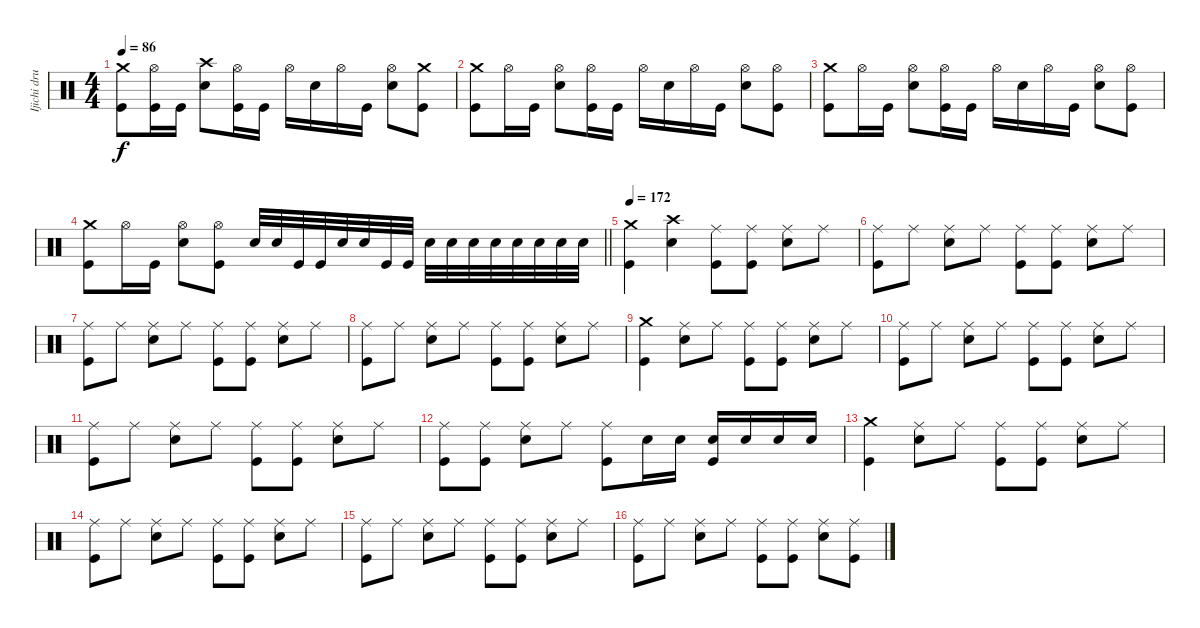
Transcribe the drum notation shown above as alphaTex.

\track ("Ijichi drums" "Ijichi dru") {instrument percussion}
\staff {score}
\articulation defaults
\ts (4 4)
\tempo 86
\clef neutral
\ks c
("Crash medium (hit)" "Kick (hit)").8{dy f} ("Hi-Hat (open)" "Kick (hit)").16 "Kick (hit)".16 ("Crash high (hit)" "Electric Snare (hit)").8 ("Hi-Hat (open)" "Kick (hit)").16 "Kick (hit)".16 "Hi-Hat (open)".16 "Electric Snare (hit)".16 "Hi-Hat (open)".16 "Kick (hit)".16 ("Hi-Hat (open)" "Electric Snare (hit)").8 ("Crash medium (hit)" "Kick (hit)").8 |
("Crash medium (hit)" "Kick (hit)").8 "Hi-Hat (open)".16 "Kick (hit)".16 ("Hi-Hat (open)" "Electric Snare (hit)").8 ("Hi-Hat (open)" "Kick (hit)").16 "Kick (hit)".16 "Hi-Hat (open)".16 "Electric Snare (hit)".16 "Hi-Hat (open)".16 "Kick (hit)".16 ("Hi-Hat (open)" "Electric Snare (hit)").8 ("Hi-Hat (open)" "Kick (hit)").8 |
("Crash medium (hit)" "Kick (hit)").8 "Hi-Hat (open)".16 "Kick (hit)".16 ("Hi-Hat (open)" "Electric Snare (hit)").8 ("Hi-Hat (open)" "Kick (hit)").16 "Kick (hit)".16 "Hi-Hat (open)".16 "Electric Snare (hit)".16 "Hi-Hat (open)".16 "Kick (hit)".16 ("Hi-Hat (open)" "Electric Snare (hit)").8 ("Hi-Hat (open)" "Kick (hit)").8 |
\barLineRight lightlight
("Crash medium (hit)" "Kick (hit)").8 "Hi-Hat (open)".16 "Kick (hit)".16 ("Hi-Hat (open)" "Electric Snare (hit)").8 ("Hi-Hat (open)" "Kick (hit)").8 "Electric Snare (hit)".32 "Electric Snare (hit)".32 "Kick (hit)".32 "Kick (hit)".32 "Electric Snare (hit)".32 "Electric Snare (hit)".32 "Kick (hit)".32 "Kick (hit)".32 "Electric Snare (hit)".32 "Electric Snare (hit)".32 "Electric Snare (hit)".32 "Electric Snare (hit)".32 "Electric Snare (hit)".32 "Electric Snare (hit)".32 "Electric Snare (hit)".32 "Electric Snare (hit)".32 |
\tempo 172
("Crash medium (hit)" "Kick (hit)").4 ("Crash high (hit)" "Electric Snare (hit)").4 ("Ride (middle)" "Kick (hit)").8 ("Ride (middle)" "Kick (hit)").8 ("Ride (middle)" "Electric Snare (hit)").8 "Ride (middle)".8 |
("Ride (middle)" "Kick (hit)").8 "Ride (middle)".8 ("Ride (middle)" "Electric Snare (hit)").8 "Ride (middle)".8 ("Ride (middle)" "Kick (hit)").8 ("Ride (middle)" "Kick (hit)").8 ("Ride (middle)" "Electric Snare (hit)").8 "Ride (middle)".8 |
("Ride (middle)" "Kick (hit)").8 "Ride (middle)".8 ("Ride (middle)" "Electric Snare (hit)").8 "Ride (middle)".8 ("Ride (middle)" "Kick (hit)").8 ("Ride (middle)" "Kick (hit)").8 ("Ride (middle)" "Electric Snare (hit)").8 "Ride (middle)".8 |
("Ride (middle)" "Kick (hit)").8 "Ride (middle)".8 ("Ride (middle)" "Electric Snare (hit)").8 "Ride (middle)".8 ("Ride (middle)" "Kick (hit)").8 ("Ride (middle)" "Kick (hit)").8 ("Ride (middle)" "Electric Snare (hit)").8 "Ride (middle)".8 |
("Crash medium (hit)" "Kick (hit)").4 ("Ride (middle)" "Electric Snare (hit)").8 "Ride (middle)".8 ("Ride (middle)" "Kick (hit)").8 ("Ride (middle)" "Kick (hit)").8 ("Ride (middle)" "Electric Snare (hit)").8 "Ride (middle)".8 |
("Ride (middle)" "Kick (hit)").8 "Ride (middle)".8 ("Ride (middle)" "Electric Snare (hit)").8 "Ride (middle)".8 ("Ride (middle)" "Kick (hit)").8 ("Ride (middle)" "Kick (hit)").8 ("Ride (middle)" "Electric Snare (hit)").8 "Ride (middle)".8 |
("Ride (middle)" "Kick (hit)").8 "Ride (middle)".8 ("Ride (middle)" "Electric Snare (hit)").8 "Ride (middle)".8 ("Ride (middle)" "Kick (hit)").8 ("Ride (middle)" "Kick (hit)").8 ("Ride (middle)" "Electric Snare (hit)").8 "Ride (middle)".8 |
("Ride (middle)" "Kick (hit)").8 ("Ride (middle)" "Kick (hit)").8 ("Ride (middle)" "Electric Snare (hit)").8 "Ride (middle)".8 ("Ride (middle)" "Kick (hit)").8 "Electric Snare (hit)".16 "Electric Snare (hit)".16 ("Electric Snare (hit)" "Kick (hit)").16 "Electric Snare (hit)".16 "Electric Snare (hit)".16 "Electric Snare (hit)".16 |
("Crash medium (hit)" "Kick (hit)").4 ("Ride (middle)" "Electric Snare (hit)").8 "Ride (middle)".8 ("Ride (middle)" "Kick (hit)").8 ("Ride (middle)" "Kick (hit)").8 ("Ride (middle)" "Electric Snare (hit)").8 "Ride (middle)".8 |
("Ride (middle)" "Kick (hit)").8 "Ride (middle)".8 ("Ride (middle)" "Electric Snare (hit)").8 "Ride (middle)".8 ("Ride (middle)" "Kick (hit)").8 ("Ride (middle)" "Kick (hit)").8 ("Ride (middle)" "Electric Snare (hit)").8 "Ride (middle)".8 |
("Ride (middle)" "Kick (hit)").8 "Ride (middle)".8 ("Ride (middle)" "Electric Snare (hit)").8 "Ride (middle)".8 ("Ride (middle)" "Kick (hit)").8 ("Ride (middle)" "Kick (hit)").8 ("Ride (middle)" "Electric Snare (hit)").8 "Ride (middle)".8 |
("Ride (middle)" "Kick (hit)").8 "Ride (middle)".8 ("Ride (middle)" "Electric Snare (hit)").8 "Ride (middle)".8 ("Ride (middle)" "Kick (hit)").8 ("Ride (middle)" "Kick (hit)").8 ("Ride (middle)" "Electric Snare (hit)").8 ("Ride (middle)" "Kick (hit)").8
